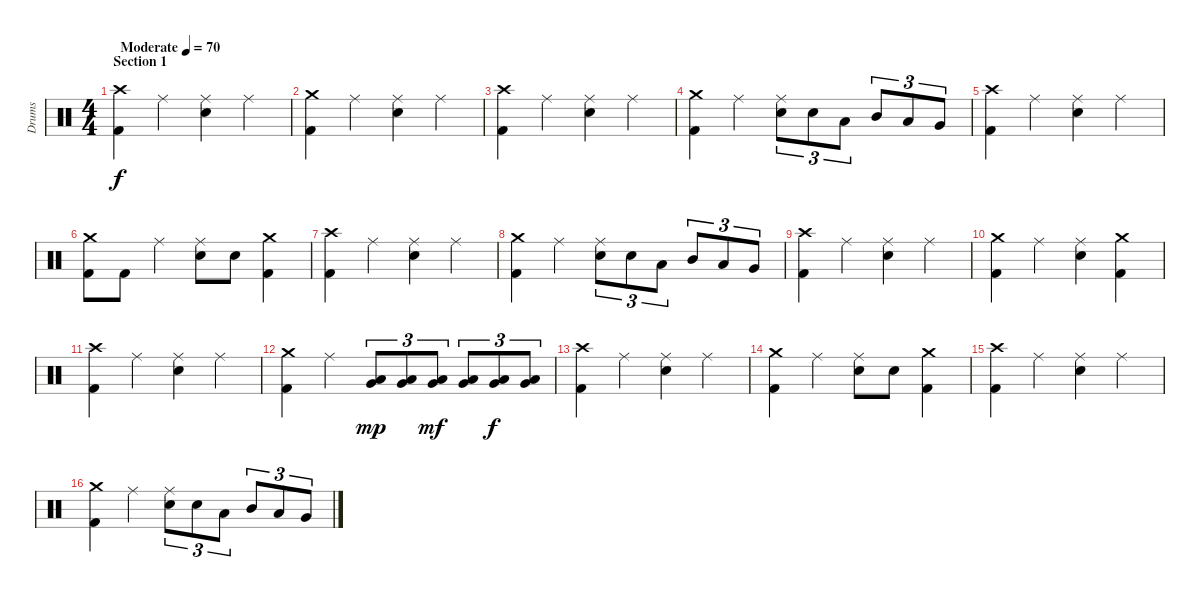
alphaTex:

\track ("Drums" "Drums") {instrument percussion}
\staff {score}
\articulation defaults
\ts (4 4)
\section ("" "Section 1")
\tempo (70 "Moderate")
\clef neutral
\ks c
("Crash high (hit)" "Kick (hit) 2").4{dy f} "Ride (middle)".4 ("Ride (middle)" "Electric Snare (hit)").4 "Ride (middle)".4 |
("Crash medium (hit)" "Kick (hit) 2").4 "Ride (middle)".4 ("Ride (middle)" "Electric Snare (hit)").4 "Ride (middle)".4 |
("Crash high (hit)" "Kick (hit) 2").4 "Ride (middle)".4 ("Ride (middle)" "Electric Snare (hit)").4 "Ride (middle)".4 |
("Crash medium (hit)" "Kick (hit) 2").4 "Ride (middle)".4 ("Ride (middle)" "Electric Snare (hit)").8{tu (3 2)} "Electric Snare (hit)".8{tu (3 2)} "Low Tom (hit)".8{tu (3 2)} "Mid Tom (hit)".8{tu (3 2)} "Low Tom (hit)".8{tu (3 2)} "Very Low Tom (hit)".8{tu (3 2)} |
("Crash high (hit)" "Kick (hit) 2").4 "Ride (middle)".4 ("Ride (middle)" "Electric Snare (hit)").4 "Ride (middle)".4 |
("Crash medium (hit)" "Kick (hit) 2").8 "Kick (hit) 2".8 "Ride (middle)".4 ("Ride (middle)" "Electric Snare (hit)").8 "Electric Snare (hit)".8 ("Crash medium (hit)" "Kick (hit) 2").4 |
("Crash high (hit)" "Kick (hit) 2").4 "Ride (middle)".4 ("Ride (middle)" "Electric Snare (hit)").4 "Ride (middle)".4 |
("Crash medium (hit)" "Kick (hit) 2").4 "Ride (middle)".4 ("Ride (middle)" "Electric Snare (hit)").8{tu (3 2)} "Electric Snare (hit)".8{tu (3 2)} "Low Tom (hit)".8{tu (3 2)} "Mid Tom (hit)".8{tu (3 2)} "Low Tom (hit)".8{tu (3 2)} "Very Low Tom (hit)".8{tu (3 2)} |
("Crash high (hit)" "Kick (hit) 2").4 "Ride (middle)".4 ("Ride (middle)" "Electric Snare (hit)").4 "Ride (middle)".4 |
("Crash medium (hit)" "Kick (hit) 2").4 "Ride (middle)".4 ("Ride (middle)" "Electric Snare (hit)").4 ("Crash medium (hit)" "Kick (hit) 2").4 |
("Crash high (hit)" "Kick (hit) 2").4 "Ride (middle)".4 ("Ride (middle)" "Electric Snare (hit)").4 "Ride (middle)".4 |
("Crash medium (hit)" "Kick (hit) 2").4 "Ride (middle)".4 ("Very Low Tom (hit)" "Low Floor Tom (hit)").8{tu (3 2) dy mp} ("Very Low Tom (hit)" "Low Floor Tom (hit)").8{tu (3 2)} ("Very Low Tom (hit)" "Low Floor Tom (hit)").8{tu (3 2) dy mf} ("Very Low Tom (hit)" "Low Floor Tom (hit)").8{tu (3 2)} ("Very Low Tom (hit)" "Low Floor Tom (hit)").8{tu (3 2) dy f} ("Very Low Tom (hit)" "Low Floor Tom (hit)").8{tu (3 2)} |
("Crash high (hit)" "Kick (hit) 2").4 "Ride (middle)".4 ("Ride (middle)" "Electric Snare (hit)").4 "Ride (middle)".4 |
("Crash medium (hit)" "Kick (hit) 2").4 "Ride (middle)".4 ("Ride (middle)" "Electric Snare (hit)").8 "Electric Snare (hit)".8 ("Crash medium (hit)" "Kick (hit) 2").4 |
("Crash high (hit)" "Kick (hit) 2").4 "Ride (middle)".4 ("Ride (middle)" "Electric Snare (hit)").4 "Ride (middle)".4 |
("Crash medium (hit)" "Kick (hit) 2").4 "Ride (middle)".4 ("Ride (middle)" "Electric Snare (hit)").8{tu (3 2)} "Electric Snare (hit)".8{tu (3 2)} "Low Tom (hit)".8{tu (3 2)} "Mid Tom (hit)".8{tu (3 2)} "Low Tom (hit)".8{tu (3 2)} "Very Low Tom (hit)".8{tu (3 2)}
